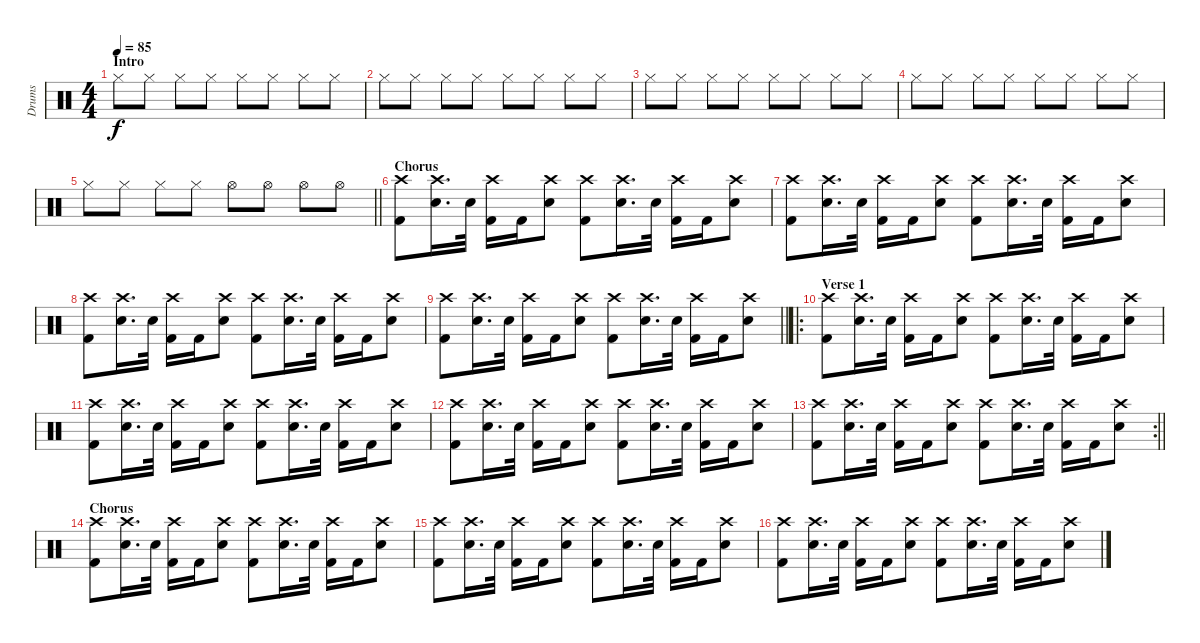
\track ("Drums" "Drums") {instrument percussion}
\staff {score}
\articulation defaults
\ts (4 4)
\section ("" "Intro")
\tempo 85
\clef neutral
\ks c "Hi-Hat (closed)".8{dy f} "Hi-Hat (closed)".8 "Hi-Hat (closed)".8 "Hi-Hat (closed)".8 "Hi-Hat (closed)".8 "Hi-Hat (closed)".8 "Hi-Hat (closed)".8 "Hi-Hat (closed)".8
|
"Hi-Hat (closed)".8 "Hi-Hat (closed)".8 "Hi-Hat (closed)".8 "Hi-Hat (closed)".8 "Hi-Hat (closed)".8 "Hi-Hat (closed)".8 "Hi-Hat (closed)".8 "Hi-Hat (closed)".8 |
"Hi-Hat (closed)".8 "Hi-Hat (closed)".8 "Hi-Hat (closed)".8 "Hi-Hat (closed)".8 "Hi-Hat (closed)".8 "Hi-Hat (closed)".8 "Hi-Hat (closed)".8 "Hi-Hat (closed)".8 |
"Hi-Hat (closed)".8 "Hi-Hat (closed)".8 "Hi-Hat (closed)".8 "Hi-Hat (closed)".8 "Hi-Hat (closed)".8 "Hi-Hat (closed)".8 "Hi-Hat (closed)".8 "Hi-Hat (closed)".8 |
\barLineRight lightlight "Hi-Hat (closed)".8 "Hi-Hat (closed)".8 "Hi-Hat (closed)".8 "Hi-Hat (closed)".8 "Hi-Hat (open)".8 "Hi-Hat (open)".8 "Hi-Hat (open)".8 "Hi-Hat (open)".8
|
\section ("" "Chorus")
("Crash high (hit)" "Kick (hit) 2").8 ("Crash high (hit)" "Electric Snare (hit)").16{d} "Electric Snare (hit)".32 ("Crash high (hit)" "Kick (hit) 2").16 "Kick (hit) 2".16 ("Crash high (hit)" "Electric Snare (hit)").8 ("Crash high (hit)" "Kick (hit) 2").8 ("Crash high (hit)" "Electric Snare (hit)").16{d} "Electric Snare (hit)".32 ("Crash high (hit)" "Kick (hit) 2").16 "Kick (hit) 2".16 ("Crash high (hit)" "Electric Snare (hit)").8 |
("Crash high (hit)" "Kick (hit) 2").8 ("Crash high (hit)" "Electric Snare (hit)").16{d} "Electric Snare (hit)".32 ("Crash high (hit)" "Kick (hit) 2").16 "Kick (hit) 2".16 ("Crash high (hit)" "Electric Snare (hit)").8 ("Crash high (hit)" "Kick (hit) 2").8 ("Crash high (hit)" "Electric Snare (hit)").16{d} "Electric Snare (hit)".32 ("Crash high (hit)" "Kick (hit) 2").16 "Kick (hit) 2".16 ("Crash high (hit)" "Electric Snare (hit)").8 |
("Crash high (hit)" "Kick (hit) 2").8 ("Crash high (hit)" "Electric Snare (hit)").16{d} "Electric Snare (hit)".32 ("Crash high (hit)" "Kick (hit) 2").16 "Kick (hit) 2".16 ("Crash high (hit)" "Electric Snare (hit)").8 ("Crash high (hit)" "Kick (hit) 2").8 ("Crash high (hit)" "Electric Snare (hit)").16{d} "Electric Snare (hit)".32 ("Crash high (hit)" "Kick (hit) 2").16 "Kick (hit) 2".16 ("Crash high (hit)" "Electric Snare (hit)").8 |
\barLineRight lightlight
("Crash high (hit)" "Kick (hit) 2").8 ("Crash high (hit)" "Electric Snare (hit)").16{d} "Electric Snare (hit)".32 ("Crash high (hit)" "Kick (hit) 2").16 "Kick (hit) 2".16 ("Crash high (hit)" "Electric Snare (hit)").8 ("Crash high (hit)" "Kick (hit) 2").8 ("Crash high (hit)" "Electric Snare (hit)").16{d} "Electric Snare (hit)".32 ("Crash high (hit)" "Kick (hit) 2").16 "Kick (hit) 2".16 ("Crash high (hit)" "Electric Snare (hit)").8 |
\ro
\section ("" "Verse 1")
("Crash high (hit)" "Kick (hit) 2").8 ("Crash high (hit)" "Electric Snare (hit)").16{d} "Electric Snare (hit)".32 ("Crash high (hit)" "Kick (hit) 2").16 "Kick (hit) 2".16 ("Crash high (hit)" "Electric Snare (hit)").8 ("Crash high (hit)" "Kick (hit) 2").8 ("Crash high (hit)" "Electric Snare (hit)").16{d} "Electric Snare (hit)".32 ("Crash high (hit)" "Kick (hit) 2").16 "Kick (hit) 2".16 ("Crash high (hit)" "Electric Snare (hit)").8 |
("Crash high (hit)" "Kick (hit) 2").8 ("Crash high (hit)" "Electric Snare (hit)").16{d} "Electric Snare (hit)".32 ("Crash high (hit)" "Kick (hit) 2").16 "Kick (hit) 2".16 ("Crash high (hit)" "Electric Snare (hit)").8 ("Crash high (hit)" "Kick (hit) 2").8 ("Crash high (hit)" "Electric Snare (hit)").16{d} "Electric Snare (hit)".32 ("Crash high (hit)" "Kick (hit) 2").16 "Kick (hit) 2".16 ("Crash high (hit)" "Electric Snare (hit)").8 |
("Crash high (hit)" "Kick (hit) 2").8 ("Crash high (hit)" "Electric Snare (hit)").16{d} "Electric Snare (hit)".32 ("Crash high (hit)" "Kick (hit) 2").16 "Kick (hit) 2".16 ("Crash high (hit)" "Electric Snare (hit)").8 ("Crash high (hit)" "Kick (hit) 2").8 ("Crash high (hit)" "Electric Snare (hit)").16{d} "Electric Snare (hit)".32 ("Crash high (hit)" "Kick (hit) 2").16 "Kick (hit) 2".16 ("Crash high (hit)" "Electric Snare (hit)").8 |
\rc 2
\barLineRight lightlight
("Crash high (hit)" "Kick (hit) 2").8 ("Crash high (hit)" "Electric Snare (hit)").16{d} "Electric Snare (hit)".32 ("Crash high (hit)" "Kick (hit) 2").16 "Kick (hit) 2".16 ("Crash high (hit)" "Electric Snare (hit)").8 ("Crash high (hit)" "Kick (hit) 2").8 ("Crash high (hit)" "Electric Snare (hit)").16{d} "Electric Snare (hit)".32 ("Crash high (hit)" "Kick (hit) 2").16 "Kick (hit) 2".16 ("Crash high (hit)" "Electric Snare (hit)").8 |
\section ("" "Chorus")
("Crash high (hit)" "Kick (hit) 2").8 ("Crash high (hit)" "Electric Snare (hit)").16{d} "Electric Snare (hit)".32 ("Crash high (hit)" "Kick (hit) 2").16 "Kick (hit) 2".16 ("Crash high (hit)" "Electric Snare (hit)").8 ("Crash high (hit)" "Kick (hit) 2").8 ("Crash high (hit)" "Electric Snare (hit)").16{d} "Electric Snare (hit)".32 ("Crash high (hit)" "Kick (hit) 2").16 "Kick (hit) 2".16 ("Crash high (hit)" "Electric Snare (hit)").8 |
("Crash high (hit)" "Kick (hit) 2").8 ("Crash high (hit)" "Electric Snare (hit)").16{d} "Electric Snare (hit)".32 ("Crash high (hit)" "Kick (hit) 2").16 "Kick (hit) 2".16 ("Crash high (hit)" "Electric Snare (hit)").8 ("Crash high (hit)" "Kick (hit) 2").8 ("Crash high (hit)" "Electric Snare (hit)").16{d} "Electric Snare (hit)".32 ("Crash high (hit)" "Kick (hit) 2").16 "Kick (hit) 2".16 ("Crash high (hit)" "Electric Snare (hit)").8 |
("Crash high (hit)" "Kick (hit) 2").8 ("Crash high (hit)" "Electric Snare (hit)").16{d} "Electric Snare (hit)".32 ("Crash high (hit)" "Kick (hit) 2").16 "Kick (hit) 2".16 ("Crash high (hit)" "Electric Snare (hit)").8 ("Crash high (hit)" "Kick (hit) 2").8 ("Crash high (hit)" "Electric Snare (hit)").16{d} "Electric Snare (hit)".32 ("Crash high (hit)" "Kick (hit) 2").16 "Kick (hit) 2".16 ("Crash high (hit)" "Electric Snare (hit)").8
